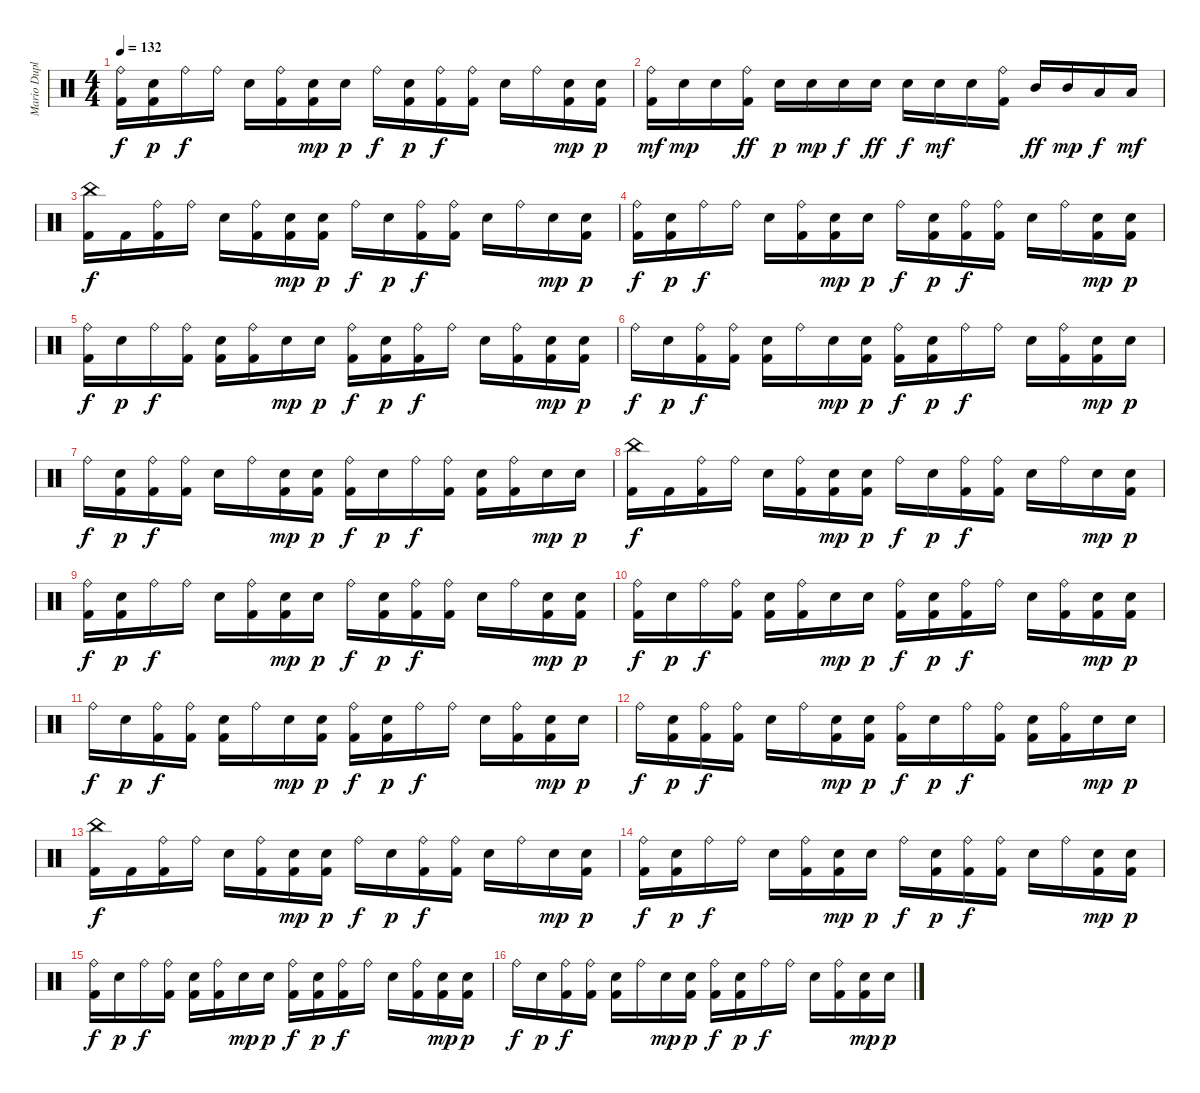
\track ("Mario Duplantier" "Mario Dupl") {instrument percussion}
\staff {score}
\articulation defaults
\ts (4 4)
\tempo 132
\clef neutral
\ks c
("Ride (bell)" "Kick (hit) 2").16{dy f} ("Electric Snare (hit)" "Kick (hit) 2").16{dy p} "Ride (bell)".16{dy f} "Ride (bell)".16 "Electric Snare (hit)".16 ("Ride (bell)" "Kick (hit) 2").16 ("Electric Snare (hit)" "Kick (hit) 2").16{dy mp} "Electric Snare (hit)".16{dy p} "Ride (bell)".16{dy f} ("Electric Snare (hit)" "Kick (hit) 2").16{dy p} ("Ride (bell)" "Kick (hit) 2").16{dy f} ("Ride (bell)" "Kick (hit) 2").16 "Electric Snare (hit)".16 "Ride (bell)".16 ("Electric Snare (hit)" "Kick (hit) 2").16{dy mp} ("Electric Snare (hit)" "Kick (hit) 2").16{dy p} |
("Ride (bell)" "Kick (hit) 2").16{dy mf} "Electric Snare (hit)".16{dy mp} "Electric Snare (hit)".16 ("Ride (bell)" "Kick (hit) 2").16{dy ff} "Electric Snare (hit)".16{dy p} "Electric Snare (hit)".16{dy mp} "Electric Snare (hit)".16{dy f} "Electric Snare (hit)".16{dy ff} "Electric Snare (hit)".16{dy f} "Electric Snare (hit)".16{dy mf} "Electric Snare (hit)".16 ("Ride (bell)" "Kick (hit) 2").16 "Mid Tom (hit)".16{dy ff} "Mid Tom (hit)".16{dy mp} "Low Tom (hit)".16{dy f} "Low Tom (hit)".16{dy mf} |
("China (hit)" "Kick (hit) 2").16{dy f} "Kick (hit) 2".16 ("Ride (bell)" "Kick (hit) 2").16 "Ride (bell)".16 "Electric Snare (hit)".16 ("Ride (bell)" "Kick (hit) 2").16 ("Electric Snare (hit)" "Kick (hit) 2").16{dy mp} ("Electric Snare (hit)" "Kick (hit) 2").16{dy p} "Ride (bell)".16{dy f} "Electric Snare (hit)".16{dy p} ("Ride (bell)" "Kick (hit) 2").16{dy f} ("Ride (bell)" "Kick (hit) 2").16 "Electric Snare (hit)".16 "Ride (bell)".16 "Electric Snare (hit)".16{dy mp} ("Electric Snare (hit)" "Kick (hit) 2").16{dy p} |
("Ride (bell)" "Kick (hit) 2").16{dy f} ("Electric Snare (hit)" "Kick (hit) 2").16{dy p} "Ride (bell)".16{dy f} "Ride (bell)".16 "Electric Snare (hit)".16 ("Ride (bell)" "Kick (hit) 2").16 ("Electric Snare (hit)" "Kick (hit) 2").16{dy mp} "Electric Snare (hit)".16{dy p} "Ride (bell)".16{dy f} ("Electric Snare (hit)" "Kick (hit) 2").16{dy p} ("Ride (bell)" "Kick (hit) 2").16{dy f} ("Ride (bell)" "Kick (hit) 2").16 "Electric Snare (hit)".16 "Ride (bell)".16 ("Electric Snare (hit)" "Kick (hit) 2").16{dy mp} ("Electric Snare (hit)" "Kick (hit) 2").16{dy p} |
("Ride (bell)" "Kick (hit) 2").16{dy f} "Electric Snare (hit)".16{dy p} "Ride (bell)".16{dy f} ("Ride (bell)" "Kick (hit) 2").16 ("Electric Snare (hit)" "Kick (hit) 2").16 ("Ride (bell)" "Kick (hit) 2").16 "Electric Snare (hit)".16{dy mp} "Electric Snare (hit)".16{dy p} ("Ride (bell)" "Kick (hit) 2").16{dy f} ("Electric Snare (hit)" "Kick (hit) 2").16{dy p} ("Ride (bell)" "Kick (hit) 2").16{dy f} "Ride (bell)".16 "Electric Snare (hit)".16 ("Ride (bell)" "Kick (hit) 2").16 ("Electric Snare (hit)" "Kick (hit) 2").16{dy mp} ("Electric Snare (hit)" "Kick (hit) 2").16{dy p} |
"Ride (bell)".16{dy f} "Electric Snare (hit)".16{dy p} ("Ride (bell)" "Kick (hit) 2").16{dy f} ("Ride (bell)" "Kick (hit) 2").16 ("Electric Snare (hit)" "Kick (hit) 2").16 "Ride (bell)".16 "Electric Snare (hit)".16{dy mp} ("Electric Snare (hit)" "Kick (hit) 2").16{dy p} ("Ride (bell)" "Kick (hit) 2").16{dy f} ("Electric Snare (hit)" "Kick (hit) 2").16{dy p} "Ride (bell)".16{dy f} "Ride (bell)".16 "Electric Snare (hit)".16 ("Ride (bell)" "Kick (hit) 2").16 ("Electric Snare (hit)" "Kick (hit) 2").16{dy mp} "Electric Snare (hit)".16{dy p} |
"Ride (bell)".16{dy f} ("Electric Snare (hit)" "Kick (hit) 2").16{dy p} ("Ride (bell)" "Kick (hit) 2").16{dy f} ("Ride (bell)" "Kick (hit) 2").16 "Electric Snare (hit)".16 "Ride (bell)".16 ("Electric Snare (hit)" "Kick (hit) 2").16{dy mp} ("Electric Snare (hit)" "Kick (hit) 2").16{dy p} ("Ride (bell)" "Kick (hit) 2").16{dy f} "Electric Snare (hit)".16{dy p} "Ride (bell)".16{dy f} ("Ride (bell)" "Kick (hit) 2").16 ("Electric Snare (hit)" "Kick (hit) 2").16 ("Ride (bell)" "Kick (hit) 2").16 "Electric Snare (hit)".16{dy mp} "Electric Snare (hit)".16{dy p} |
("China (hit)" "Kick (hit) 2").16{dy f} "Kick (hit) 2".16 ("Ride (bell)" "Kick (hit) 2").16 "Ride (bell)".16 "Electric Snare (hit)".16 ("Ride (bell)" "Kick (hit) 2").16 ("Electric Snare (hit)" "Kick (hit) 2").16{dy mp} ("Electric Snare (hit)" "Kick (hit) 2").16{dy p} "Ride (bell)".16{dy f} "Electric Snare (hit)".16{dy p} ("Ride (bell)" "Kick (hit) 2").16{dy f} ("Ride (bell)" "Kick (hit) 2").16 "Electric Snare (hit)".16 "Ride (bell)".16 "Electric Snare (hit)".16{dy mp} ("Electric Snare (hit)" "Kick (hit) 2").16{dy p} |
("Ride (bell)" "Kick (hit) 2").16{dy f} ("Electric Snare (hit)" "Kick (hit) 2").16{dy p} "Ride (bell)".16{dy f} "Ride (bell)".16 "Electric Snare (hit)".16 ("Ride (bell)" "Kick (hit) 2").16 ("Electric Snare (hit)" "Kick (hit) 2").16{dy mp} "Electric Snare (hit)".16{dy p} "Ride (bell)".16{dy f} ("Electric Snare (hit)" "Kick (hit) 2").16{dy p} ("Ride (bell)" "Kick (hit) 2").16{dy f} ("Ride (bell)" "Kick (hit) 2").16 "Electric Snare (hit)".16 "Ride (bell)".16 ("Electric Snare (hit)" "Kick (hit) 2").16{dy mp} ("Electric Snare (hit)" "Kick (hit) 2").16{dy p} |
("Ride (bell)" "Kick (hit) 2").16{dy f} "Electric Snare (hit)".16{dy p} "Ride (bell)".16{dy f} ("Ride (bell)" "Kick (hit) 2").16 ("Electric Snare (hit)" "Kick (hit) 2").16 ("Ride (bell)" "Kick (hit) 2").16 "Electric Snare (hit)".16{dy mp} "Electric Snare (hit)".16{dy p} ("Ride (bell)" "Kick (hit) 2").16{dy f} ("Electric Snare (hit)" "Kick (hit) 2").16{dy p} ("Ride (bell)" "Kick (hit) 2").16{dy f} "Ride (bell)".16 "Electric Snare (hit)".16 ("Ride (bell)" "Kick (hit) 2").16 ("Electric Snare (hit)" "Kick (hit) 2").16{dy mp} ("Electric Snare (hit)" "Kick (hit) 2").16{dy p} |
"Ride (bell)".16{dy f} "Electric Snare (hit)".16{dy p} ("Ride (bell)" "Kick (hit) 2").16{dy f} ("Ride (bell)" "Kick (hit) 2").16 ("Electric Snare (hit)" "Kick (hit) 2").16 "Ride (bell)".16 "Electric Snare (hit)".16{dy mp} ("Electric Snare (hit)" "Kick (hit) 2").16{dy p} ("Ride (bell)" "Kick (hit) 2").16{dy f} ("Electric Snare (hit)" "Kick (hit) 2").16{dy p} "Ride (bell)".16{dy f} "Ride (bell)".16 "Electric Snare (hit)".16 ("Ride (bell)" "Kick (hit) 2").16 ("Electric Snare (hit)" "Kick (hit) 2").16{dy mp} "Electric Snare (hit)".16{dy p} |
"Ride (bell)".16{dy f} ("Electric Snare (hit)" "Kick (hit) 2").16{dy p} ("Ride (bell)" "Kick (hit) 2").16{dy f} ("Ride (bell)" "Kick (hit) 2").16 "Electric Snare (hit)".16 "Ride (bell)".16 ("Electric Snare (hit)" "Kick (hit) 2").16{dy mp} ("Electric Snare (hit)" "Kick (hit) 2").16{dy p} ("Ride (bell)" "Kick (hit) 2").16{dy f} "Electric Snare (hit)".16{dy p} "Ride (bell)".16{dy f} ("Ride (bell)" "Kick (hit) 2").16 ("Electric Snare (hit)" "Kick (hit) 2").16 ("Ride (bell)" "Kick (hit) 2").16 "Electric Snare (hit)".16{dy mp} "Electric Snare (hit)".16{dy p} |
("China (hit)" "Kick (hit) 2").16{dy f} "Kick (hit) 2".16 ("Ride (bell)" "Kick (hit) 2").16 "Ride (bell)".16 "Electric Snare (hit)".16 ("Ride (bell)" "Kick (hit) 2").16 ("Electric Snare (hit)" "Kick (hit) 2").16{dy mp} ("Electric Snare (hit)" "Kick (hit) 2").16{dy p} "Ride (bell)".16{dy f} "Electric Snare (hit)".16{dy p} ("Ride (bell)" "Kick (hit) 2").16{dy f} ("Ride (bell)" "Kick (hit) 2").16 "Electric Snare (hit)".16 "Ride (bell)".16 "Electric Snare (hit)".16{dy mp} ("Electric Snare (hit)" "Kick (hit) 2").16{dy p} |
("Ride (bell)" "Kick (hit) 2").16{dy f} ("Electric Snare (hit)" "Kick (hit) 2").16{dy p} "Ride (bell)".16{dy f} "Ride (bell)".16 "Electric Snare (hit)".16 ("Ride (bell)" "Kick (hit) 2").16 ("Electric Snare (hit)" "Kick (hit) 2").16{dy mp} "Electric Snare (hit)".16{dy p} "Ride (bell)".16{dy f} ("Electric Snare (hit)" "Kick (hit) 2").16{dy p} ("Ride (bell)" "Kick (hit) 2").16{dy f} ("Ride (bell)" "Kick (hit) 2").16 "Electric Snare (hit)".16 "Ride (bell)".16 ("Electric Snare (hit)" "Kick (hit) 2").16{dy mp} ("Electric Snare (hit)" "Kick (hit) 2").16{dy p} |
("Ride (bell)" "Kick (hit) 2").16{dy f} "Electric Snare (hit)".16{dy p} "Ride (bell)".16{dy f} ("Ride (bell)" "Kick (hit) 2").16 ("Electric Snare (hit)" "Kick (hit) 2").16 ("Ride (bell)" "Kick (hit) 2").16 "Electric Snare (hit)".16{dy mp} "Electric Snare (hit)".16{dy p} ("Ride (bell)" "Kick (hit) 2").16{dy f} ("Electric Snare (hit)" "Kick (hit) 2").16{dy p} ("Ride (bell)" "Kick (hit) 2").16{dy f} "Ride (bell)".16 "Electric Snare (hit)".16 ("Ride (bell)" "Kick (hit) 2").16 ("Electric Snare (hit)" "Kick (hit) 2").16{dy mp} ("Electric Snare (hit)" "Kick (hit) 2").16{dy p} |
"Ride (bell)".16{dy f} "Electric Snare (hit)".16{dy p} ("Ride (bell)" "Kick (hit) 2").16{dy f} ("Ride (bell)" "Kick (hit) 2").16 ("Electric Snare (hit)" "Kick (hit) 2").16 "Ride (bell)".16 "Electric Snare (hit)".16{dy mp} ("Electric Snare (hit)" "Kick (hit) 2").16{dy p} ("Ride (bell)" "Kick (hit) 2").16{dy f} ("Electric Snare (hit)" "Kick (hit) 2").16{dy p} "Ride (bell)".16{dy f} "Ride (bell)".16 "Electric Snare (hit)".16 ("Ride (bell)" "Kick (hit) 2").16 ("Electric Snare (hit)" "Kick (hit) 2").16{dy mp} "Electric Snare (hit)".16{dy p}
